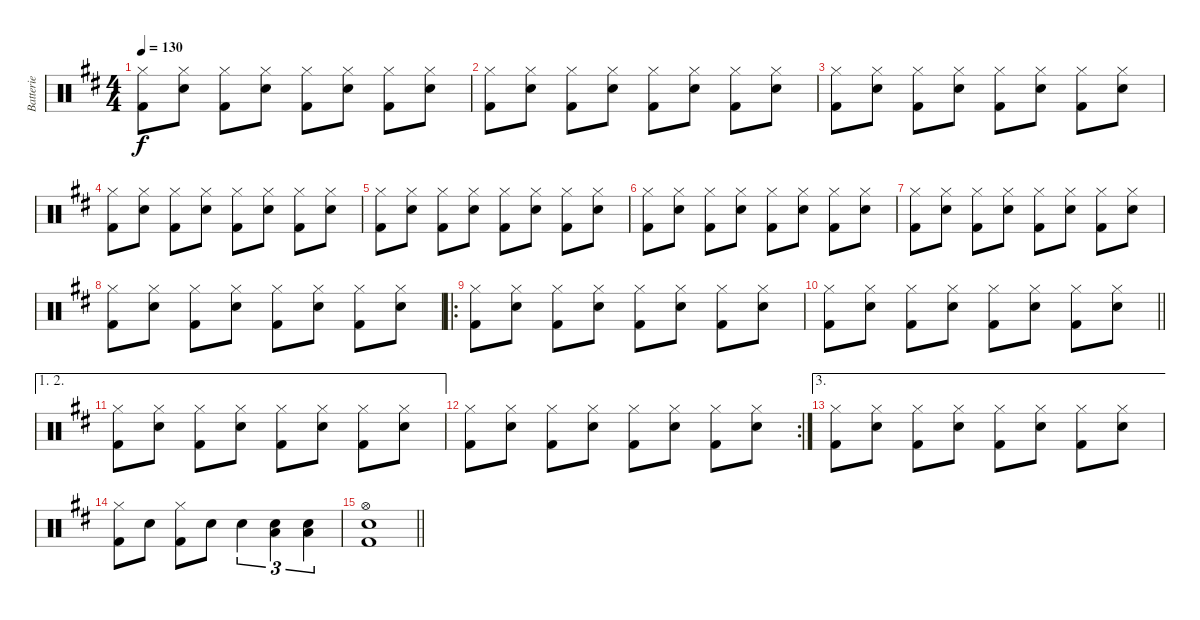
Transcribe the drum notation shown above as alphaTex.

\track ("Batterie" "Batterie") {instrument percussion}
\staff {score}
\articulation defaults
\ts (4 4)
\tempo 130
\clef neutral
\ks d
("Hi-Hat (closed)" "Kick (hit) 2").8{dy f} ("Hi-Hat (closed)" "Snare (hit) 2").8 ("Hi-Hat (closed)" "Kick (hit) 2").8 ("Hi-Hat (closed)" "Snare (hit) 2").8 ("Hi-Hat (closed)" "Kick (hit) 2").8 ("Hi-Hat (closed)" "Snare (hit) 2").8 ("Hi-Hat (closed)" "Kick (hit) 2").8 ("Hi-Hat (closed)" "Snare (hit) 2").8 |
("Hi-Hat (closed)" "Kick (hit) 2").8 ("Hi-Hat (closed)" "Snare (hit) 2").8 ("Hi-Hat (closed)" "Kick (hit) 2").8 ("Hi-Hat (closed)" "Snare (hit) 2").8 ("Hi-Hat (closed)" "Kick (hit) 2").8 ("Hi-Hat (closed)" "Snare (hit) 2").8 ("Hi-Hat (closed)" "Kick (hit) 2").8 ("Hi-Hat (closed)" "Snare (hit) 2").8 |
("Hi-Hat (closed)" "Kick (hit) 2").8 ("Hi-Hat (closed)" "Snare (hit) 2").8 ("Hi-Hat (closed)" "Kick (hit) 2").8 ("Hi-Hat (closed)" "Snare (hit) 2").8 ("Hi-Hat (closed)" "Kick (hit) 2").8 ("Hi-Hat (closed)" "Snare (hit) 2").8 ("Hi-Hat (closed)" "Kick (hit) 2").8 ("Hi-Hat (closed)" "Snare (hit) 2").8 |
("Hi-Hat (closed)" "Kick (hit) 2").8 ("Hi-Hat (closed)" "Snare (hit) 2").8 ("Hi-Hat (closed)" "Kick (hit) 2").8 ("Hi-Hat (closed)" "Snare (hit) 2").8 ("Hi-Hat (closed)" "Kick (hit) 2").8 ("Hi-Hat (closed)" "Snare (hit) 2").8 ("Hi-Hat (closed)" "Kick (hit) 2").8 ("Hi-Hat (closed)" "Snare (hit) 2").8 |
("Hi-Hat (closed)" "Kick (hit) 2").8 ("Hi-Hat (closed)" "Snare (hit) 2").8 ("Hi-Hat (closed)" "Kick (hit) 2").8 ("Hi-Hat (closed)" "Snare (hit) 2").8 ("Hi-Hat (closed)" "Kick (hit) 2").8 ("Hi-Hat (closed)" "Snare (hit) 2").8 ("Hi-Hat (closed)" "Kick (hit) 2").8 ("Hi-Hat (closed)" "Snare (hit) 2").8 |
("Hi-Hat (closed)" "Kick (hit) 2").8 ("Hi-Hat (closed)" "Snare (hit) 2").8 ("Hi-Hat (closed)" "Kick (hit) 2").8 ("Hi-Hat (closed)" "Snare (hit) 2").8 ("Hi-Hat (closed)" "Kick (hit) 2").8 ("Hi-Hat (closed)" "Snare (hit) 2").8 ("Hi-Hat (closed)" "Kick (hit) 2").8 ("Hi-Hat (closed)" "Snare (hit) 2").8 |
("Hi-Hat (closed)" "Kick (hit) 2").8 ("Hi-Hat (closed)" "Snare (hit) 2").8 ("Hi-Hat (closed)" "Kick (hit) 2").8 ("Hi-Hat (closed)" "Snare (hit) 2").8 ("Hi-Hat (closed)" "Kick (hit) 2").8 ("Hi-Hat (closed)" "Snare (hit) 2").8 ("Hi-Hat (closed)" "Kick (hit) 2").8 ("Hi-Hat (closed)" "Snare (hit) 2").8 |
("Hi-Hat (closed)" "Kick (hit) 2").8 ("Hi-Hat (closed)" "Snare (hit) 2").8 ("Hi-Hat (closed)" "Kick (hit) 2").8 ("Hi-Hat (closed)" "Snare (hit) 2").8 ("Hi-Hat (closed)" "Kick (hit) 2").8 ("Hi-Hat (closed)" "Snare (hit) 2").8 ("Hi-Hat (closed)" "Kick (hit) 2").8 ("Hi-Hat (closed)" "Snare (hit) 2").8 |
\ro
("Hi-Hat (closed)" "Kick (hit) 2").8 ("Hi-Hat (closed)" "Snare (hit) 2").8 ("Hi-Hat (closed)" "Kick (hit) 2").8 ("Hi-Hat (closed)" "Snare (hit) 2").8 ("Hi-Hat (closed)" "Kick (hit) 2").8 ("Hi-Hat (closed)" "Snare (hit) 2").8 ("Hi-Hat (closed)" "Kick (hit) 2").8 ("Hi-Hat (closed)" "Snare (hit) 2").8 |
\barLineRight lightlight
("Hi-Hat (closed)" "Kick (hit) 2").8 ("Hi-Hat (closed)" "Snare (hit) 2").8 ("Hi-Hat (closed)" "Kick (hit) 2").8 ("Hi-Hat (closed)" "Snare (hit) 2").8 ("Hi-Hat (closed)" "Kick (hit) 2").8 ("Hi-Hat (closed)" "Snare (hit) 2").8 ("Hi-Hat (closed)" "Kick (hit) 2").8 ("Hi-Hat (closed)" "Snare (hit) 2").8 |
\ae (1 2)
("Hi-Hat (closed)" "Kick (hit) 2").8 ("Hi-Hat (closed)" "Snare (hit) 2").8 ("Hi-Hat (closed)" "Kick (hit) 2").8 ("Hi-Hat (closed)" "Snare (hit) 2").8 ("Hi-Hat (closed)" "Kick (hit) 2").8 ("Hi-Hat (closed)" "Snare (hit) 2").8 ("Hi-Hat (closed)" "Kick (hit) 2").8 ("Hi-Hat (closed)" "Snare (hit) 2").8 |
\rc 2
("Hi-Hat (closed)" "Kick (hit) 2").8 ("Hi-Hat (closed)" "Snare (hit) 2").8 ("Hi-Hat (closed)" "Kick (hit) 2").8 ("Hi-Hat (closed)" "Snare (hit) 2").8 ("Hi-Hat (closed)" "Kick (hit) 2").8 ("Hi-Hat (closed)" "Snare (hit) 2").8 ("Hi-Hat (closed)" "Kick (hit) 2").8 ("Hi-Hat (closed)" "Snare (hit) 2").8 |
\ae 3
("Hi-Hat (closed)" "Kick (hit) 2").8 ("Hi-Hat (closed)" "Snare (hit) 2").8 ("Hi-Hat (closed)" "Kick (hit) 2").8 ("Hi-Hat (closed)" "Snare (hit) 2").8 ("Hi-Hat (closed)" "Kick (hit) 2").8 ("Hi-Hat (closed)" "Snare (hit) 2").8 ("Hi-Hat (closed)" "Kick (hit) 2").8 ("Hi-Hat (closed)" "Snare (hit) 2").8 |
("Hi-Hat (closed)" "Kick (hit) 2").8 "Snare (hit) 2".8 ("Hi-Hat (closed)" "Kick (hit) 2").8 "Snare (hit) 2".8 "Snare (hit) 2".4{tu (3 2)} ("Snare (hit) 2" "Low Floor Tom (hit)").4{tu (3 2)} ("Snare (hit) 2" "Low Floor Tom (hit)").4{tu (3 2)} |
\barLineRight lightlight
("Hi-Hat (open)" "Snare (hit) 2" "Kick (hit) 2").1
